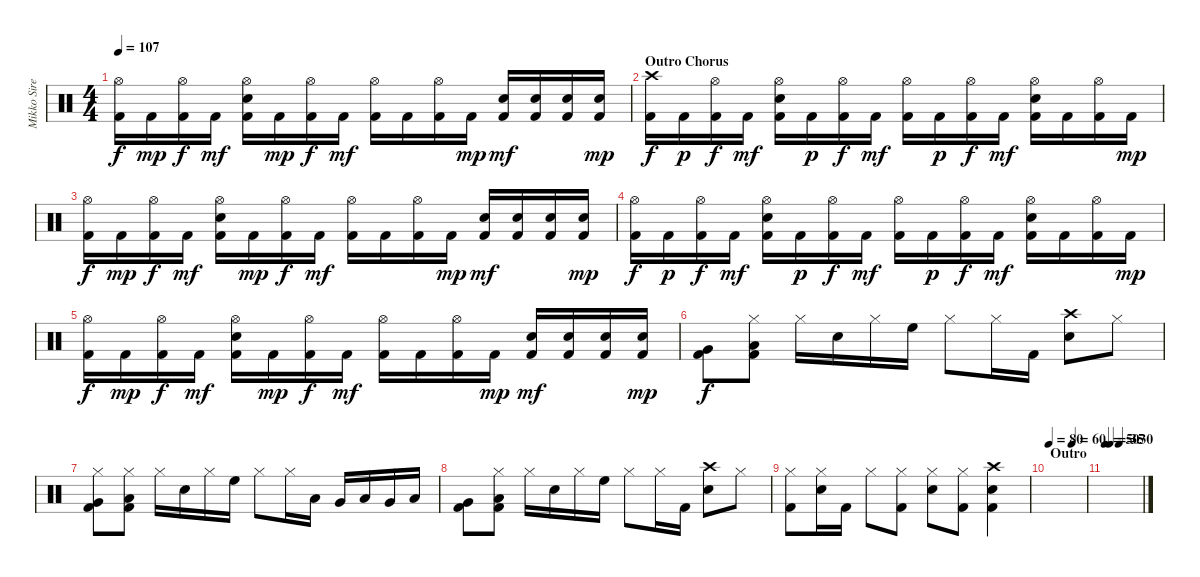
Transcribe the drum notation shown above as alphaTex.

\track ("Mikko Siren" "Mikko Sire") {instrument percussion}
\staff {score}
\articulation defaults
\ts (4 4)
\tempo 107
\clef neutral
\ks c
("Kick (hit) 2" "Hi-Hat (open)").16{dy f} "Kick (hit) 2".16{dy mp} ("Kick (hit) 2" "Hi-Hat (open)").16{dy f} "Kick (hit) 2".16{dy mf} ("Kick (hit) 2" "Electric Snare (hit)" "Hi-Hat (open)").16 "Kick (hit) 2".16{dy mp} ("Kick (hit) 2" "Hi-Hat (open)").16{dy f} "Kick (hit) 2".16{dy mf} ("Kick (hit) 2" "Hi-Hat (open)").16 "Kick (hit) 2".16 ("Kick (hit) 2" "Hi-Hat (open)").16 "Kick (hit) 2".16{dy mp} ("Kick (hit) 2" "Electric Snare (hit)").16{dy mf} ("Kick (hit) 2" "Electric Snare (hit)").16 ("Kick (hit) 2" "Electric Snare (hit)").16 ("Kick (hit) 2" "Electric Snare (hit)").16{dy mp} |
\section ("" "Outro Chorus")
("Kick (hit) 2" "Crash high (hit)").16{dy f} "Kick (hit) 2".16{dy p} ("Kick (hit) 2" "Hi-Hat (open)").16{dy f} "Kick (hit) 2".16{dy mf} ("Kick (hit) 2" "Electric Snare (hit)" "Hi-Hat (open)").16 "Kick (hit) 2".16{dy p} ("Kick (hit) 2" "Hi-Hat (open)").16{dy f} "Kick (hit) 2".16{dy mf} ("Kick (hit) 2" "Hi-Hat (open)").16 "Kick (hit) 2".16{dy p} ("Kick (hit) 2" "Hi-Hat (open)").16{dy f} "Kick (hit) 2".16{dy mf} ("Kick (hit) 2" "Electric Snare (hit)" "Hi-Hat (open)").16 "Kick (hit) 2".16 ("Kick (hit) 2" "Hi-Hat (open)").16 "Kick (hit) 2".16{dy mp} |
("Kick (hit) 2" "Hi-Hat (open)").16{dy f} "Kick (hit) 2".16{dy mp} ("Kick (hit) 2" "Hi-Hat (open)").16{dy f} "Kick (hit) 2".16{dy mf} ("Kick (hit) 2" "Electric Snare (hit)" "Hi-Hat (open)").16 "Kick (hit) 2".16{dy mp} ("Kick (hit) 2" "Hi-Hat (open)").16{dy f} "Kick (hit) 2".16{dy mf} ("Kick (hit) 2" "Hi-Hat (open)").16 "Kick (hit) 2".16 ("Kick (hit) 2" "Hi-Hat (open)").16 "Kick (hit) 2".16{dy mp} ("Kick (hit) 2" "Electric Snare (hit)").16{dy mf} ("Kick (hit) 2" "Electric Snare (hit)").16 ("Kick (hit) 2" "Electric Snare (hit)").16 ("Kick (hit) 2" "Electric Snare (hit)").16{dy mp} |
("Kick (hit) 2" "Hi-Hat (open)").16{dy f} "Kick (hit) 2".16{dy p} ("Kick (hit) 2" "Hi-Hat (open)").16{dy f} "Kick (hit) 2".16{dy mf} ("Kick (hit) 2" "Electric Snare (hit)" "Hi-Hat (open)").16 "Kick (hit) 2".16{dy p} ("Kick (hit) 2" "Hi-Hat (open)").16{dy f} "Kick (hit) 2".16{dy mf} ("Kick (hit) 2" "Hi-Hat (open)").16 "Kick (hit) 2".16{dy p} ("Kick (hit) 2" "Hi-Hat (open)").16{dy f} "Kick (hit) 2".16{dy mf} ("Kick (hit) 2" "Electric Snare (hit)" "Hi-Hat (open)").16 "Kick (hit) 2".16 ("Kick (hit) 2" "Hi-Hat (open)").16 "Kick (hit) 2".16{dy mp} |
("Kick (hit) 2" "Hi-Hat (open)").16{dy f} "Kick (hit) 2".16{dy mp} ("Kick (hit) 2" "Hi-Hat (open)").16{dy f} "Kick (hit) 2".16{dy mf} ("Kick (hit) 2" "Electric Snare (hit)" "Hi-Hat (open)").16 "Kick (hit) 2".16{dy mp} ("Kick (hit) 2" "Hi-Hat (open)").16{dy f} "Kick (hit) 2".16{dy mf} ("Kick (hit) 2" "Hi-Hat (open)").16 "Kick (hit) 2".16 ("Kick (hit) 2" "Hi-Hat (open)").16 "Kick (hit) 2".16{dy mp} ("Kick (hit) 2" "Electric Snare (hit)").16{dy mf} ("Kick (hit) 2" "Electric Snare (hit)").16 ("Kick (hit) 2" "Electric Snare (hit)").16 ("Kick (hit) 2" "Electric Snare (hit)").16{dy mp} |
("Very Low Tom (hit)" "Kick (hit) 2").8{dy f} ("Low Floor Tom (hit)" "Kick (hit) 2" "Hi-Hat (closed)").8 "Hi-Hat (closed)".16 "Electric Snare (hit)".16 "Hi-Hat (closed)".16 "High Floor Tom (hit)".16 "Hi-Hat (closed)".8 "Hi-Hat (closed)".16 "Kick (hit) 2".16 ("Electric Snare (hit)" "Crash high (hit)").8 "Hi-Hat (closed)".8 |
("Very Low Tom (hit)" "Kick (hit) 2" "Hi-Hat (closed)").8 ("Low Floor Tom (hit)" "Kick (hit) 2" "Hi-Hat (closed)").8 "Hi-Hat (closed)".16 "Electric Snare (hit)".16 "Hi-Hat (closed)".16 "High Floor Tom (hit)".16 "Hi-Hat (closed)".8 "Hi-Hat (closed)".16 "Low Tom (hit)".16 "Very Low Tom (hit)".16 "Low Tom (hit)".16 "Very Low Tom (hit)".16 "Low Floor Tom (hit)".16 |
("Very Low Tom (hit)" "Kick (hit) 2").8 ("Low Floor Tom (hit)" "Kick (hit) 2" "Hi-Hat (closed)").8 "Hi-Hat (closed)".16 "Electric Snare (hit)".16 "Hi-Hat (closed)".16 "High Floor Tom (hit)".16 "Hi-Hat (closed)".8 "Hi-Hat (closed)".16 "Kick (hit) 2".16 ("Electric Snare (hit)" "Crash high (hit)").8 "Hi-Hat (closed)".8 |
("Kick (hit) 2" "Hi-Hat (closed)").8 ("Electric Snare (hit)" "Hi-Hat (closed)").16 "Kick (hit) 2".16 "Hi-Hat (closed)".8 ("Kick (hit) 2" "Hi-Hat (closed)").8 ("Electric Snare (hit)" "Hi-Hat (closed)").8 ("Kick (hit) 2" "Hi-Hat (closed)").8 ("Electric Snare (hit)" "Crash high (hit)" "Kick (hit) 2").4 |
\section ("" "Outro")
\tempo 80
\tempo (60 0.625)
|
\tempo 50
\tempo (35 0.125)
\tempo (30 0.375)
